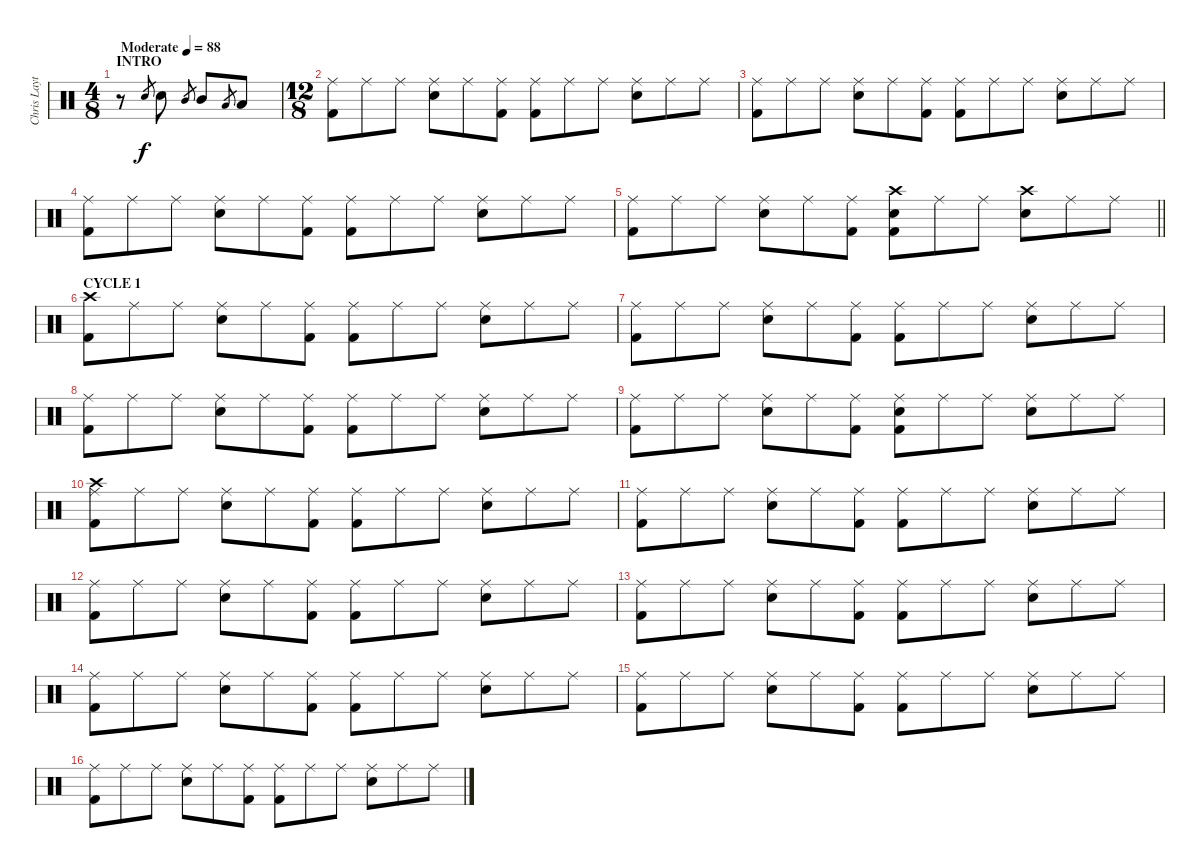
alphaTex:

\track ("Chris Layton" "Chris Layt") {instrument percussion}
\staff {score}
\articulation defaults
\ts (4 8)
\section ("" "INTRO")
\tempo (88 "Moderate")
\clef neutral
\ks c
r.8{dy f} "Snare (hit) 2".8{gr} "Snare (hit) 2".8 "Mid Tom (hit)".8{gr} "Mid Tom (hit)".8 "Low Tom (hit)".8{gr} "Low Tom (hit)".8 |
\ts (12 8)
("Ride (middle)" "Kick (hit) 2").8 "Ride (middle)".8 "Ride (middle)".8 ("Ride (middle)" "Snare (hit) 2").8 "Ride (middle)".8 ("Ride (middle)" "Kick (hit) 2").8 ("Ride (middle)" "Kick (hit) 2").8 "Ride (middle)".8 "Ride (middle)".8 ("Ride (middle)" "Snare (hit) 2").8 "Ride (middle)".8 "Ride (middle)".8 |
("Ride (middle)" "Kick (hit) 2").8 "Ride (middle)".8 "Ride (middle)".8 ("Ride (middle)" "Snare (hit) 2").8 "Ride (middle)".8 ("Ride (middle)" "Kick (hit) 2").8 ("Ride (middle)" "Kick (hit) 2").8 "Ride (middle)".8 "Ride (middle)".8 ("Ride (middle)" "Snare (hit) 2").8 "Ride (middle)".8 "Ride (middle)".8 |
("Ride (middle)" "Kick (hit) 2").8 "Ride (middle)".8 "Ride (middle)".8 ("Ride (middle)" "Snare (hit) 2").8 "Ride (middle)".8 ("Ride (middle)" "Kick (hit) 2").8 ("Ride (middle)" "Kick (hit) 2").8 "Ride (middle)".8 "Ride (middle)".8 ("Ride (middle)" "Snare (hit) 2").8 "Ride (middle)".8 "Ride (middle)".8 |
\barLineRight lightlight
("Ride (middle)" "Kick (hit) 2").8 "Ride (middle)".8 "Ride (middle)".8 ("Ride (middle)" "Snare (hit) 2").8 "Ride (middle)".8 ("Ride (middle)" "Kick (hit) 2").8 ("Crash high (hit)" "Snare (hit) 2" "Kick (hit) 2").8 "Ride (middle)".8 "Ride (middle)".8 ("Crash high (hit)" "Snare (hit) 2").8 "Ride (middle)".8 "Ride (middle)".8 |
\section ("" "CYCLE 1")
("Crash high (hit)" "Kick (hit) 2").8 "Ride (middle)".8 "Ride (middle)".8 ("Ride (middle)" "Snare (hit) 2").8 "Ride (middle)".8 ("Ride (middle)" "Kick (hit) 2").8 ("Ride (middle)" "Kick (hit) 2").8 "Ride (middle)".8 "Ride (middle)".8 ("Ride (middle)" "Snare (hit) 2").8 "Ride (middle)".8 "Ride (middle)".8 |
("Ride (middle)" "Kick (hit) 2").8 "Ride (middle)".8 "Ride (middle)".8 ("Ride (middle)" "Snare (hit) 2").8 "Ride (middle)".8 ("Ride (middle)" "Kick (hit) 2").8 ("Ride (middle)" "Kick (hit) 2").8 "Ride (middle)".8 "Ride (middle)".8 ("Ride (middle)" "Snare (hit) 2").8 "Ride (middle)".8 "Ride (middle)".8 |
("Ride (middle)" "Kick (hit) 2").8 "Ride (middle)".8 "Ride (middle)".8 ("Ride (middle)" "Snare (hit) 2").8 "Ride (middle)".8 ("Ride (middle)" "Kick (hit) 2").8 ("Ride (middle)" "Kick (hit) 2").8 "Ride (middle)".8 "Ride (middle)".8 ("Ride (middle)" "Snare (hit) 2").8 "Ride (middle)".8 "Ride (middle)".8 |
("Ride (middle)" "Kick (hit) 2").8 "Ride (middle)".8 "Ride (middle)".8 ("Ride (middle)" "Snare (hit) 2").8 "Ride (middle)".8 ("Ride (middle)" "Kick (hit) 2").8 ("Ride (middle)" "Snare (hit) 2" "Kick (hit) 2").8 "Ride (middle)".8 "Ride (middle)".8 ("Ride (middle)" "Snare (hit) 2").8 "Ride (middle)".8 "Ride (middle)".8 |
("Ride (middle)" "Crash high (hit)" "Kick (hit) 2").8 "Ride (middle)".8 "Ride (middle)".8 ("Ride (middle)" "Snare (hit) 2").8 "Ride (middle)".8 ("Ride (middle)" "Kick (hit) 2").8 ("Ride (middle)" "Kick (hit) 2").8 "Ride (middle)".8 "Ride (middle)".8 ("Ride (middle)" "Snare (hit) 2").8 "Ride (middle)".8 "Ride (middle)".8 |
("Ride (middle)" "Kick (hit) 2").8 "Ride (middle)".8 "Ride (middle)".8 ("Ride (middle)" "Snare (hit) 2").8 "Ride (middle)".8 ("Ride (middle)" "Kick (hit) 2").8 ("Ride (middle)" "Kick (hit) 2").8 "Ride (middle)".8 "Ride (middle)".8 ("Ride (middle)" "Snare (hit) 2").8 "Ride (middle)".8 "Ride (middle)".8 |
("Ride (middle)" "Kick (hit) 2").8 "Ride (middle)".8 "Ride (middle)".8 ("Ride (middle)" "Snare (hit) 2").8 "Ride (middle)".8 ("Ride (middle)" "Kick (hit) 2").8 ("Ride (middle)" "Kick (hit) 2").8 "Ride (middle)".8 "Ride (middle)".8 ("Ride (middle)" "Snare (hit) 2").8 "Ride (middle)".8 "Ride (middle)".8 |
("Ride (middle)" "Kick (hit) 2").8 "Ride (middle)".8 "Ride (middle)".8 ("Ride (middle)" "Snare (hit) 2").8 "Ride (middle)".8 ("Ride (middle)" "Kick (hit) 2").8 ("Ride (middle)" "Kick (hit) 2").8 "Ride (middle)".8 "Ride (middle)".8 ("Ride (middle)" "Snare (hit) 2").8 "Ride (middle)".8 "Ride (middle)".8 |
("Ride (middle)" "Kick (hit) 2").8 "Ride (middle)".8 "Ride (middle)".8 ("Ride (middle)" "Snare (hit) 2").8 "Ride (middle)".8 ("Ride (middle)" "Kick (hit) 2").8 ("Ride (middle)" "Kick (hit) 2").8 "Ride (middle)".8 "Ride (middle)".8 ("Ride (middle)" "Snare (hit) 2").8 "Ride (middle)".8 "Ride (middle)".8 |
("Ride (middle)" "Kick (hit) 2").8 "Ride (middle)".8 "Ride (middle)".8 ("Ride (middle)" "Snare (hit) 2").8 "Ride (middle)".8 ("Ride (middle)" "Kick (hit) 2").8 ("Ride (middle)" "Kick (hit) 2").8 "Ride (middle)".8 "Ride (middle)".8 ("Ride (middle)" "Snare (hit) 2").8 "Ride (middle)".8 "Ride (middle)".8 |
("Ride (middle)" "Kick (hit) 2").8 "Ride (middle)".8 "Ride (middle)".8 ("Ride (middle)" "Snare (hit) 2").8 "Ride (middle)".8 ("Ride (middle)" "Kick (hit) 2").8 ("Ride (middle)" "Kick (hit) 2").8 "Ride (middle)".8 "Ride (middle)".8 ("Ride (middle)" "Snare (hit) 2").8 "Ride (middle)".8 "Ride (middle)".8
